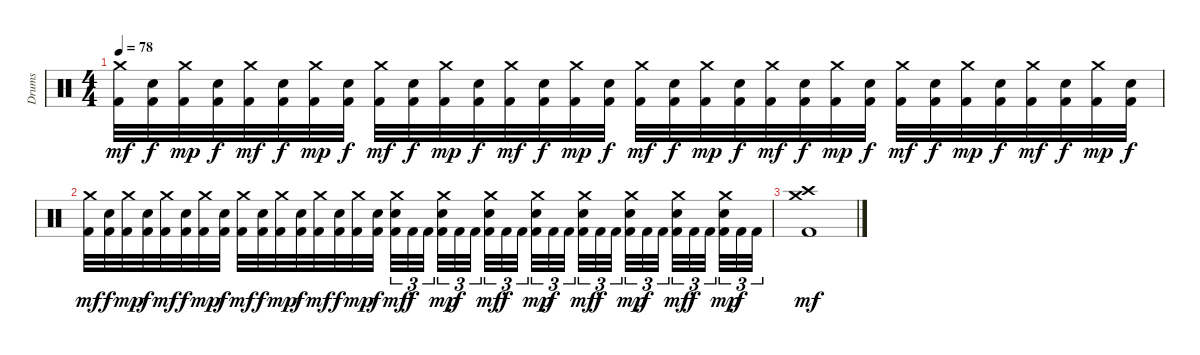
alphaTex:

\track ("Drums" "Drums") {instrument percussion}
\staff {score}
\articulation defaults
\ts (4 4)
\tempo 78
\clef neutral
\ks c
("Crash medium (hit)" "Kick (hit) 2").32{dy mf} ("Electric Snare (hit)" "Kick (hit) 2").32{dy f} ("Crash medium (hit)" "Kick (hit) 2").32{dy mp} ("Electric Snare (hit)" "Kick (hit) 2").32{dy f} ("Crash medium (hit)" "Kick (hit) 2").32{dy mf} ("Electric Snare (hit)" "Kick (hit) 2").32{dy f} ("Crash medium (hit)" "Kick (hit) 2").32{dy mp} ("Electric Snare (hit)" "Kick (hit) 2").32{dy f} ("Crash medium (hit)" "Kick (hit) 2").32{dy mf} ("Electric Snare (hit)" "Kick (hit) 2").32{dy f} ("Crash medium (hit)" "Kick (hit) 2").32{dy mp} ("Electric Snare (hit)" "Kick (hit) 2").32{dy f} ("Crash medium (hit)" "Kick (hit) 2").32{dy mf} ("Electric Snare (hit)" "Kick (hit) 2").32{dy f} ("Crash medium (hit)" "Kick (hit) 2").32{dy mp} ("Electric Snare (hit)" "Kick (hit) 2").32{dy f} ("Crash medium (hit)" "Kick (hit) 2").32{dy mf} ("Electric Snare (hit)" "Kick (hit) 2").32{dy f} ("Crash medium (hit)" "Kick (hit) 2").32{dy mp} ("Electric Snare (hit)" "Kick (hit) 2").32{dy f} ("Crash medium (hit)" "Kick (hit) 2").32{dy mf} ("Electric Snare (hit)" "Kick (hit) 2").32{dy f} ("Crash medium (hit)" "Kick (hit) 2").32{dy mp} ("Electric Snare (hit)" "Kick (hit) 2").32{dy f} ("Crash medium (hit)" "Kick (hit) 2").32{dy mf} ("Electric Snare (hit)" "Kick (hit) 2").32{dy f} ("Crash medium (hit)" "Kick (hit) 2").32{dy mp} ("Electric Snare (hit)" "Kick (hit) 2").32{dy f} ("Crash medium (hit)" "Kick (hit) 2").32{dy mf} ("Electric Snare (hit)" "Kick (hit) 2").32{dy f} ("Crash medium (hit)" "Kick (hit) 2").32{dy mp} ("Electric Snare (hit)" "Kick (hit) 2").32{dy f} |
("Crash medium (hit)" "Kick (hit) 2").32{dy mf} ("Electric Snare (hit)" "Kick (hit) 2").32{dy f} ("Crash medium (hit)" "Kick (hit) 2").32{dy mp} ("Electric Snare (hit)" "Kick (hit) 2").32{dy f} ("Crash medium (hit)" "Kick (hit) 2").32{dy mf} ("Electric Snare (hit)" "Kick (hit) 2").32{dy f} ("Crash medium (hit)" "Kick (hit) 2").32{dy mp} ("Electric Snare (hit)" "Kick (hit) 2").32{dy f} ("Crash medium (hit)" "Kick (hit) 2").32{dy mf} ("Electric Snare (hit)" "Kick (hit) 2").32{dy f} ("Crash medium (hit)" "Kick (hit) 2").32{dy mp} ("Electric Snare (hit)" "Kick (hit) 2").32{dy f} ("Crash medium (hit)" "Kick (hit) 2").32{dy mf} ("Electric Snare (hit)" "Kick (hit) 2").32{dy f} ("Crash medium (hit)" "Kick (hit) 2").32{dy mp} ("Electric Snare (hit)" "Kick (hit) 2").32{dy f} ("Crash medium (hit)" "Electric Snare (hit)" "Kick (hit) 2").32{tu (3 2) dy mf} "Kick (hit) 2".32{tu (3 2) dy f} "Kick (hit) 2".32{tu (3 2)} ("Crash medium (hit)" "Electric Snare (hit)" "Kick (hit) 2").32{tu (3 2) dy mp} "Kick (hit) 2".32{tu (3 2) dy f} "Kick (hit) 2".32{tu (3 2)} ("Crash medium (hit)" "Electric Snare (hit)" "Kick (hit) 2").32{tu (3 2) dy mf} "Kick (hit) 2".32{tu (3 2) dy f} "Kick (hit) 2".32{tu (3 2)} ("Crash medium (hit)" "Electric Snare (hit)" "Kick (hit) 2").32{tu (3 2) dy mp} "Kick (hit) 2".32{tu (3 2) dy f} "Kick (hit) 2".32{tu (3 2)} ("Crash medium (hit)" "Electric Snare (hit)" "Kick (hit) 2").32{tu (3 2) dy mf} "Kick (hit) 2".32{tu (3 2) dy f} "Kick (hit) 2".32{tu (3 2)} ("Crash medium (hit)" "Electric Snare (hit)" "Kick (hit) 2").32{tu (3 2) dy mp} "Kick (hit) 2".32{tu (3 2) dy f} "Kick (hit) 2".32{tu (3 2)} ("Crash medium (hit)" "Electric Snare (hit)" "Kick (hit) 2").32{tu (3 2) dy mf} "Kick (hit) 2".32{tu (3 2) dy f} "Kick (hit) 2".32{tu (3 2)} ("Crash medium (hit)" "Electric Snare (hit)" "Kick (hit) 2").32{tu (3 2) dy mp} "Kick (hit) 2".32{tu (3 2) dy f} "Kick (hit) 2".32{tu (3 2)} |
("Crash medium (hit)" "Crash high (hit)" "Kick (hit) 2").1{dy mf}
